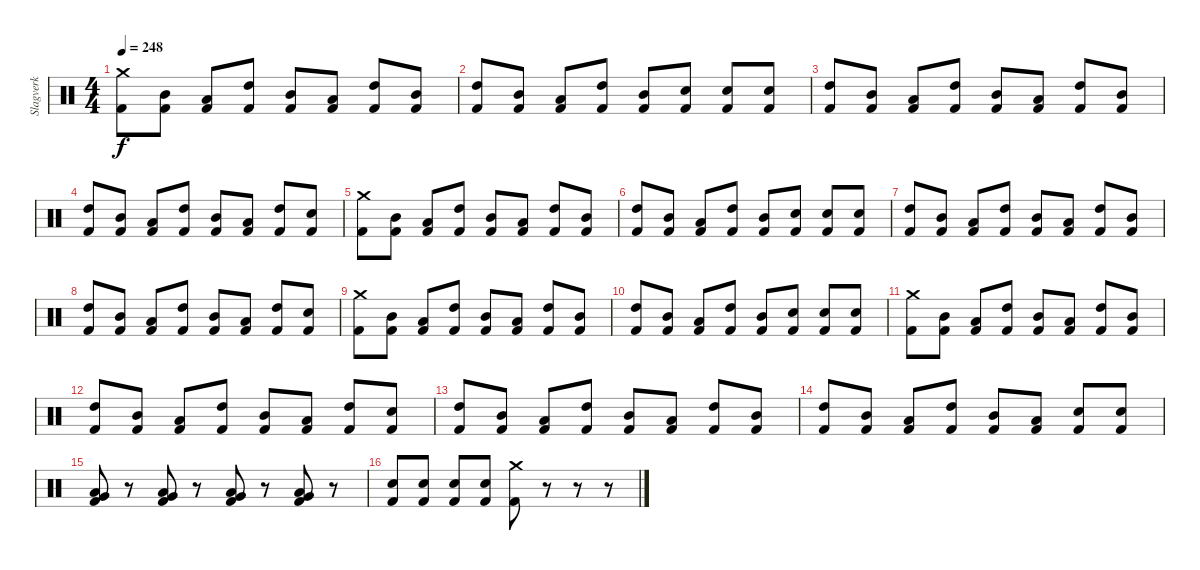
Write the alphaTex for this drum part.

\track ("Slagverk" "Slagverk") {instrument percussion}
\staff {score}
\articulation defaults
\ts (4 4)
\tempo 248
\clef neutral
\ks c
("Crash medium (hit)" "Kick (hit) 2").8{dy f} ("Mid Tom (hit)" "Kick (hit) 2").8 ("Low Tom (hit)" "Kick (hit) 2").8 ("High Tom (hit)" "Kick (hit) 2").8 ("Mid Tom (hit)" "Kick (hit) 2").8 ("Low Tom (hit)" "Kick (hit) 2").8 ("High Tom (hit)" "Kick (hit) 2").8 ("Mid Tom (hit)" "Kick (hit) 2").8 |
("High Tom (hit)" "Kick (hit) 2").8 ("Mid Tom (hit)" "Kick (hit) 2").8 ("Low Tom (hit)" "Kick (hit) 2").8 ("High Tom (hit)" "Kick (hit) 2").8 ("Mid Tom (hit)" "Kick (hit) 2").8 ("Snare (hit) 2" "Kick (hit) 2").8 ("Snare (hit) 2" "Kick (hit) 2").8 ("Snare (hit) 2" "Kick (hit) 2").8 |
("High Tom (hit)" "Kick (hit) 2").8 ("Mid Tom (hit)" "Kick (hit) 2").8 ("Low Tom (hit)" "Kick (hit) 2").8 ("High Tom (hit)" "Kick (hit) 2").8 ("Mid Tom (hit)" "Kick (hit) 2").8 ("Low Tom (hit)" "Kick (hit) 2").8 ("High Tom (hit)" "Kick (hit) 2").8 ("Mid Tom (hit)" "Kick (hit) 2").8 |
("High Tom (hit)" "Kick (hit) 2").8 ("Mid Tom (hit)" "Kick (hit) 2").8 ("Low Tom (hit)" "Kick (hit) 2").8 ("High Tom (hit)" "Kick (hit) 2").8 ("Mid Tom (hit)" "Kick (hit) 2").8 ("Low Tom (hit)" "Kick (hit) 2").8 ("High Tom (hit)" "Kick (hit) 2").8 ("Snare (hit) 2" "Kick (hit) 2").8 |
("Crash medium (hit)" "Kick (hit) 2").8 ("Mid Tom (hit)" "Kick (hit) 2").8 ("Low Tom (hit)" "Kick (hit) 2").8 ("High Tom (hit)" "Kick (hit) 2").8 ("Mid Tom (hit)" "Kick (hit) 2").8 ("Low Tom (hit)" "Kick (hit) 2").8 ("High Tom (hit)" "Kick (hit) 2").8 ("Mid Tom (hit)" "Kick (hit) 2").8 |
("High Tom (hit)" "Kick (hit) 2").8 ("Mid Tom (hit)" "Kick (hit) 2").8 ("Low Tom (hit)" "Kick (hit) 2").8 ("High Tom (hit)" "Kick (hit) 2").8 ("Mid Tom (hit)" "Kick (hit) 2").8 ("Snare (hit) 2" "Kick (hit) 2").8 ("Snare (hit) 2" "Kick (hit) 2").8 ("Snare (hit) 2" "Kick (hit) 2").8 |
("High Tom (hit)" "Kick (hit) 2").8 ("Mid Tom (hit)" "Kick (hit) 2").8 ("Low Tom (hit)" "Kick (hit) 2").8 ("High Tom (hit)" "Kick (hit) 2").8 ("Mid Tom (hit)" "Kick (hit) 2").8 ("Low Tom (hit)" "Kick (hit) 2").8 ("High Tom (hit)" "Kick (hit) 2").8 ("Mid Tom (hit)" "Kick (hit) 2").8 |
("High Tom (hit)" "Kick (hit) 2").8 ("Mid Tom (hit)" "Kick (hit) 2").8 ("Low Tom (hit)" "Kick (hit) 2").8 ("High Tom (hit)" "Kick (hit) 2").8 ("Mid Tom (hit)" "Kick (hit) 2").8 ("Low Tom (hit)" "Kick (hit) 2").8 ("High Tom (hit)" "Kick (hit) 2").8 ("Snare (hit) 2" "Kick (hit) 2").8 |
("Crash medium (hit)" "Kick (hit) 2").8 ("Mid Tom (hit)" "Kick (hit) 2").8 ("Low Tom (hit)" "Kick (hit) 2").8 ("High Tom (hit)" "Kick (hit) 2").8 ("Mid Tom (hit)" "Kick (hit) 2").8 ("Low Tom (hit)" "Kick (hit) 2").8 ("High Tom (hit)" "Kick (hit) 2").8 ("Mid Tom (hit)" "Kick (hit) 2").8 |
("High Tom (hit)" "Kick (hit) 2").8 ("Mid Tom (hit)" "Kick (hit) 2").8 ("Low Tom (hit)" "Kick (hit) 2").8 ("High Tom (hit)" "Kick (hit) 2").8 ("Mid Tom (hit)" "Kick (hit) 2").8 ("Snare (hit) 2" "Kick (hit) 2").8 ("Snare (hit) 2" "Kick (hit) 2").8 ("Snare (hit) 2" "Kick (hit) 2").8 |
("Crash medium (hit)" "Kick (hit) 2").8 ("Mid Tom (hit)" "Kick (hit) 2").8 ("Low Tom (hit)" "Kick (hit) 2").8 ("High Tom (hit)" "Kick (hit) 2").8 ("Mid Tom (hit)" "Kick (hit) 2").8 ("Low Tom (hit)" "Kick (hit) 2").8 ("High Tom (hit)" "Kick (hit) 2").8 ("Mid Tom (hit)" "Kick (hit) 2").8 |
("High Tom (hit)" "Kick (hit) 2").8 ("Mid Tom (hit)" "Kick (hit) 2").8 ("Low Tom (hit)" "Kick (hit) 2").8 ("High Tom (hit)" "Kick (hit) 2").8 ("Mid Tom (hit)" "Kick (hit) 2").8 ("Low Tom (hit)" "Kick (hit) 2").8 ("High Tom (hit)" "Kick (hit) 2").8 ("Snare (hit) 2" "Kick (hit) 2").8 |
("High Tom (hit)" "Kick (hit) 2").8 ("Mid Tom (hit)" "Kick (hit) 2").8 ("Low Tom (hit)" "Kick (hit) 2").8 ("High Tom (hit)" "Kick (hit) 2").8 ("Mid Tom (hit)" "Kick (hit) 2").8 ("Low Tom (hit)" "Kick (hit) 2").8 ("High Tom (hit)" "Kick (hit) 2").8 ("Mid Tom (hit)" "Kick (hit) 2").8 |
("High Tom (hit)" "Kick (hit) 2").8 ("Mid Tom (hit)" "Kick (hit) 2").8 ("Low Tom (hit)" "Kick (hit) 2").8 ("High Tom (hit)" "Kick (hit) 2").8 ("Mid Tom (hit)" "Kick (hit) 2").8 ("Low Tom (hit)" "Kick (hit) 2").8 ("Snare (hit) 2" "Kick (hit) 2").8 ("Snare (hit) 2" "Kick (hit) 2").8 |
("Very Low Tom (hit)" "Low Floor Tom (hit)" "Kick (hit) 2").8 r.8 ("Very Low Tom (hit)" "Low Floor Tom (hit)" "Kick (hit) 2").8 r.8 ("Very Low Tom (hit)" "Low Floor Tom (hit)" "Kick (hit) 2").8 r.8 ("Very Low Tom (hit)" "Low Floor Tom (hit)" "Kick (hit) 2").8 r.8 |
("Snare (hit) 2" "Kick (hit) 2").8 ("Snare (hit) 2" "Kick (hit) 2").8 ("Snare (hit) 2" "Kick (hit) 2").8 ("Snare (hit) 2" "Kick (hit) 2").8 ("Crash medium (hit)" "Kick (hit) 2").8 r.8 r.8 r.8
